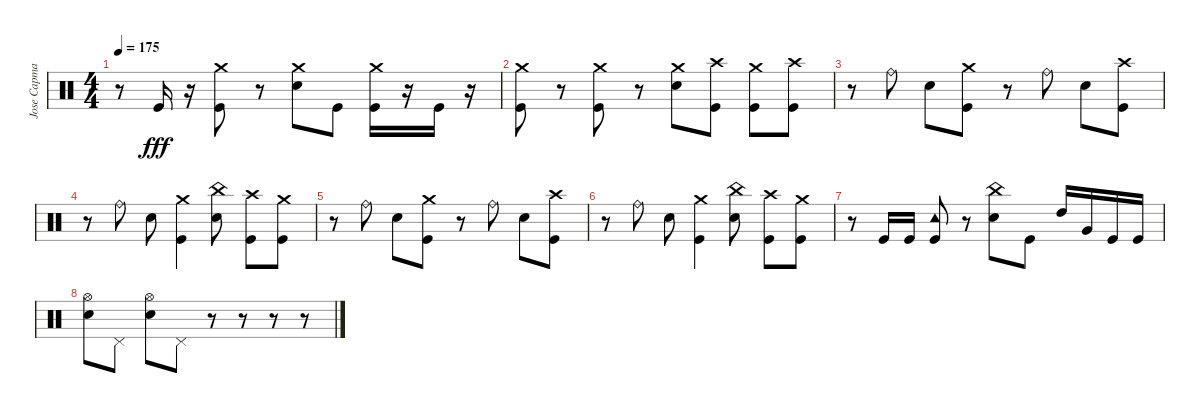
\track ("Jose Capmany" "Jose Capma") {instrument percussion}
\staff {score}
\articulation defaults
\ts (4 4)
\tempo 175
\clef neutral
\ks c
r.8{dy fff} "Kick (hit)".16 r.16 ("Crash medium (hit)" "Kick (hit)").8 r.8 ("Crash medium (hit)" "Snare (hit) 2").8 "Kick (hit)".8 ("Crash medium (hit)" "Kick (hit)").16 r.16 "Kick (hit)".16 r.16 |
("Crash medium (hit)" "Kick (hit)").8 r.8 ("Crash medium (hit)" "Kick (hit)").8 r.8 ("Crash medium (hit)" "Snare (hit) 2").8 ("Crash high (hit)" "Kick (hit)").8 ("Crash medium (hit)" "Kick (hit)").8 ("Crash high (hit)" "Kick (hit)").8 |
r.8 "Ride (bell)".8 "Snare (hit) 2".8 ("Crash medium (hit)" "Kick (hit)").8 r.8 "Ride (bell)".8 "Snare (hit) 2".8 ("Crash high (hit)" "Kick (hit)").8 |
r.8 "Ride (bell)".8 "Snare (hit) 2".8 ("Crash medium (hit)" "Kick (hit)").4 ("China (hit)" "Snare (hit) 2").8 ("Crash high (hit)" "Kick (hit)").8 ("Crash medium (hit)" "Kick (hit)").8 |
r.8 "Ride (bell)".8 "Snare (hit) 2".8 ("Crash medium (hit)" "Kick (hit)").8 r.8 "Ride (bell)".8 "Snare (hit) 2".8 ("Crash high (hit)" "Kick (hit)").8 |
r.8 "Ride (bell)".8 "Snare (hit) 2".8 ("Crash medium (hit)" "Kick (hit)").4 ("China (hit)" "Snare (hit) 2").8 ("Crash high (hit)" "Kick (hit)").8 ("Crash medium (hit)" "Kick (hit)").8 |
r.8 "Kick (hit)".16 "Kick (hit)".16 ("Tambourine (hit)" "Kick (hit)").8 r.8 ("China (hit)" "Snare (hit) 2").8 "Kick (hit)".8 "High Tom (hit)".16 "Very Low Tom (hit)".16 "Kick (hit)".16 "Kick (hit)".16 |
("Hi-Hat (open)" "Snare (hit) 2").8 "Pedal Hi-Hat (hit)".8 ("Hi-Hat (open)" "Snare (hit) 2").8 "Pedal Hi-Hat (hit)".8 r.8 r.8 r.8 r.8
